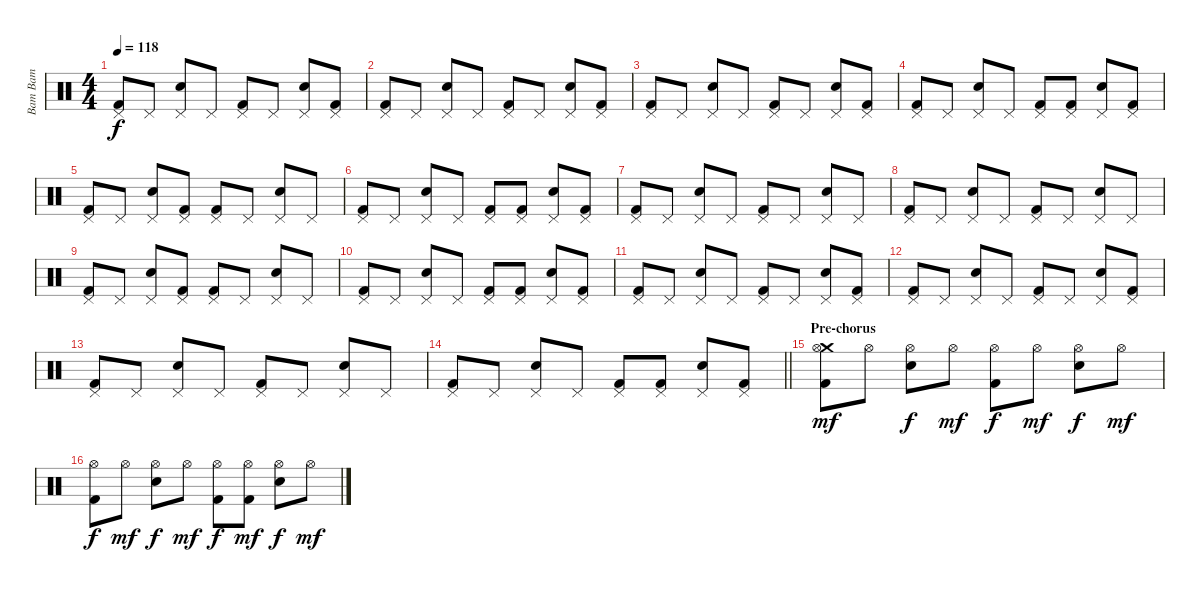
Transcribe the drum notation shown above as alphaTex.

\track ("Bam Bam" "Bam Bam") {instrument percussion}
\staff {score}
\articulation defaults
\ts (4 4)
\tempo 118
\clef neutral
\ks c
("Pedal Hi-Hat (hit)" "Kick (hit) 2").8{dy f} "Pedal Hi-Hat (hit)".8 ("Pedal Hi-Hat (hit)" "Electric Snare (hit)").8 "Pedal Hi-Hat (hit)".8 ("Pedal Hi-Hat (hit)" "Kick (hit) 2").8 "Pedal Hi-Hat (hit)".8 ("Pedal Hi-Hat (hit)" "Electric Snare (hit)").8 ("Pedal Hi-Hat (hit)" "Kick (hit) 2").8 |
("Pedal Hi-Hat (hit)" "Kick (hit) 2").8 "Pedal Hi-Hat (hit)".8 ("Pedal Hi-Hat (hit)" "Electric Snare (hit)").8 "Pedal Hi-Hat (hit)".8 ("Pedal Hi-Hat (hit)" "Kick (hit) 2").8 "Pedal Hi-Hat (hit)".8 ("Pedal Hi-Hat (hit)" "Electric Snare (hit)").8 ("Pedal Hi-Hat (hit)" "Kick (hit) 2").8 |
("Pedal Hi-Hat (hit)" "Kick (hit) 2").8 "Pedal Hi-Hat (hit)".8 ("Pedal Hi-Hat (hit)" "Electric Snare (hit)").8 "Pedal Hi-Hat (hit)".8 ("Pedal Hi-Hat (hit)" "Kick (hit) 2").8 "Pedal Hi-Hat (hit)".8 ("Pedal Hi-Hat (hit)" "Electric Snare (hit)").8 ("Pedal Hi-Hat (hit)" "Kick (hit) 2").8 |
("Pedal Hi-Hat (hit)" "Kick (hit) 2").8 "Pedal Hi-Hat (hit)".8 ("Pedal Hi-Hat (hit)" "Electric Snare (hit)").8 "Pedal Hi-Hat (hit)".8 ("Pedal Hi-Hat (hit)" "Kick (hit) 2").8 ("Pedal Hi-Hat (hit)" "Kick (hit) 2").8 ("Pedal Hi-Hat (hit)" "Electric Snare (hit)").8 ("Pedal Hi-Hat (hit)" "Kick (hit) 2").8 |
("Pedal Hi-Hat (hit)" "Kick (hit) 2").8 "Pedal Hi-Hat (hit)".8 ("Pedal Hi-Hat (hit)" "Electric Snare (hit)").8 ("Pedal Hi-Hat (hit)" "Kick (hit) 2").8 ("Pedal Hi-Hat (hit)" "Kick (hit) 2").8 "Pedal Hi-Hat (hit)".8 ("Pedal Hi-Hat (hit)" "Electric Snare (hit)").8 "Pedal Hi-Hat (hit)".8 |
("Pedal Hi-Hat (hit)" "Kick (hit) 2").8 "Pedal Hi-Hat (hit)".8 ("Pedal Hi-Hat (hit)" "Electric Snare (hit)").8 "Pedal Hi-Hat (hit)".8 ("Pedal Hi-Hat (hit)" "Kick (hit) 2").8 ("Pedal Hi-Hat (hit)" "Kick (hit) 2").8 ("Pedal Hi-Hat (hit)" "Electric Snare (hit)").8 ("Pedal Hi-Hat (hit)" "Kick (hit) 2").8 |
("Pedal Hi-Hat (hit)" "Kick (hit) 2").8 "Pedal Hi-Hat (hit)".8 ("Pedal Hi-Hat (hit)" "Electric Snare (hit)").8 "Pedal Hi-Hat (hit)".8 ("Pedal Hi-Hat (hit)" "Kick (hit) 2").8 "Pedal Hi-Hat (hit)".8 ("Pedal Hi-Hat (hit)" "Electric Snare (hit)").8 "Pedal Hi-Hat (hit)".8 |
("Pedal Hi-Hat (hit)" "Kick (hit) 2").8 "Pedal Hi-Hat (hit)".8 ("Pedal Hi-Hat (hit)" "Electric Snare (hit)").8 "Pedal Hi-Hat (hit)".8 ("Pedal Hi-Hat (hit)" "Kick (hit) 2").8 "Pedal Hi-Hat (hit)".8 ("Pedal Hi-Hat (hit)" "Electric Snare (hit)").8 "Pedal Hi-Hat (hit)".8 |
("Pedal Hi-Hat (hit)" "Kick (hit) 2").8 "Pedal Hi-Hat (hit)".8 ("Pedal Hi-Hat (hit)" "Electric Snare (hit)").8 ("Pedal Hi-Hat (hit)" "Kick (hit) 2").8 ("Pedal Hi-Hat (hit)" "Kick (hit) 2").8 "Pedal Hi-Hat (hit)".8 ("Pedal Hi-Hat (hit)" "Electric Snare (hit)").8 "Pedal Hi-Hat (hit)".8 |
("Pedal Hi-Hat (hit)" "Kick (hit) 2").8 "Pedal Hi-Hat (hit)".8 ("Pedal Hi-Hat (hit)" "Electric Snare (hit)").8 "Pedal Hi-Hat (hit)".8 ("Pedal Hi-Hat (hit)" "Kick (hit) 2").8 ("Pedal Hi-Hat (hit)" "Kick (hit) 2").8 ("Pedal Hi-Hat (hit)" "Electric Snare (hit)").8 ("Pedal Hi-Hat (hit)" "Kick (hit) 2").8 |
("Pedal Hi-Hat (hit)" "Kick (hit) 2").8 "Pedal Hi-Hat (hit)".8 ("Pedal Hi-Hat (hit)" "Electric Snare (hit)").8 "Pedal Hi-Hat (hit)".8 ("Pedal Hi-Hat (hit)" "Kick (hit) 2").8 "Pedal Hi-Hat (hit)".8 ("Pedal Hi-Hat (hit)" "Electric Snare (hit)").8 ("Pedal Hi-Hat (hit)" "Kick (hit) 2").8 |
("Pedal Hi-Hat (hit)" "Kick (hit) 2").8 "Pedal Hi-Hat (hit)".8 ("Pedal Hi-Hat (hit)" "Electric Snare (hit)").8 "Pedal Hi-Hat (hit)".8 ("Pedal Hi-Hat (hit)" "Kick (hit) 2").8 "Pedal Hi-Hat (hit)".8 ("Pedal Hi-Hat (hit)" "Electric Snare (hit)").8 ("Pedal Hi-Hat (hit)" "Kick (hit) 2").8 |
("Pedal Hi-Hat (hit)" "Kick (hit) 2").8 "Pedal Hi-Hat (hit)".8 ("Pedal Hi-Hat (hit)" "Electric Snare (hit)").8 "Pedal Hi-Hat (hit)".8 ("Pedal Hi-Hat (hit)" "Kick (hit) 2").8 "Pedal Hi-Hat (hit)".8 ("Pedal Hi-Hat (hit)" "Electric Snare (hit)").8 "Pedal Hi-Hat (hit)".8 |
\barLineRight lightlight
("Pedal Hi-Hat (hit)" "Kick (hit) 2").8 "Pedal Hi-Hat (hit)".8 ("Pedal Hi-Hat (hit)" "Electric Snare (hit)").8 "Pedal Hi-Hat (hit)".8 ("Pedal Hi-Hat (hit)" "Kick (hit) 2").8 ("Pedal Hi-Hat (hit)" "Kick (hit) 2").8 ("Pedal Hi-Hat (hit)" "Electric Snare (hit)").8 ("Pedal Hi-Hat (hit)" "Kick (hit) 2").8 |
\section ("" "Pre-chorus")
("Crash medium (hit)" "Hi-Hat (open)" "Kick (hit) 2").8{dy mf} "Hi-Hat (open)".8 ("Hi-Hat (open)" "Electric Snare (hit)").8{dy f} "Hi-Hat (open)".8{dy mf} ("Hi-Hat (open)" "Kick (hit) 2").8{dy f} "Hi-Hat (open)".8{dy mf} ("Hi-Hat (open)" "Electric Snare (hit)").8{dy f} "Hi-Hat (open)".8{dy mf} |
("Hi-Hat (open)" "Kick (hit) 2").8{dy f} "Hi-Hat (open)".8{dy mf} ("Hi-Hat (open)" "Electric Snare (hit)").8{dy f} "Hi-Hat (open)".8{dy mf} ("Hi-Hat (open)" "Kick (hit) 2").8{dy f} ("Hi-Hat (open)" "Kick (hit) 2").8{dy mf} ("Hi-Hat (open)" "Electric Snare (hit)").8{dy f} "Hi-Hat (open)".8{dy mf}
